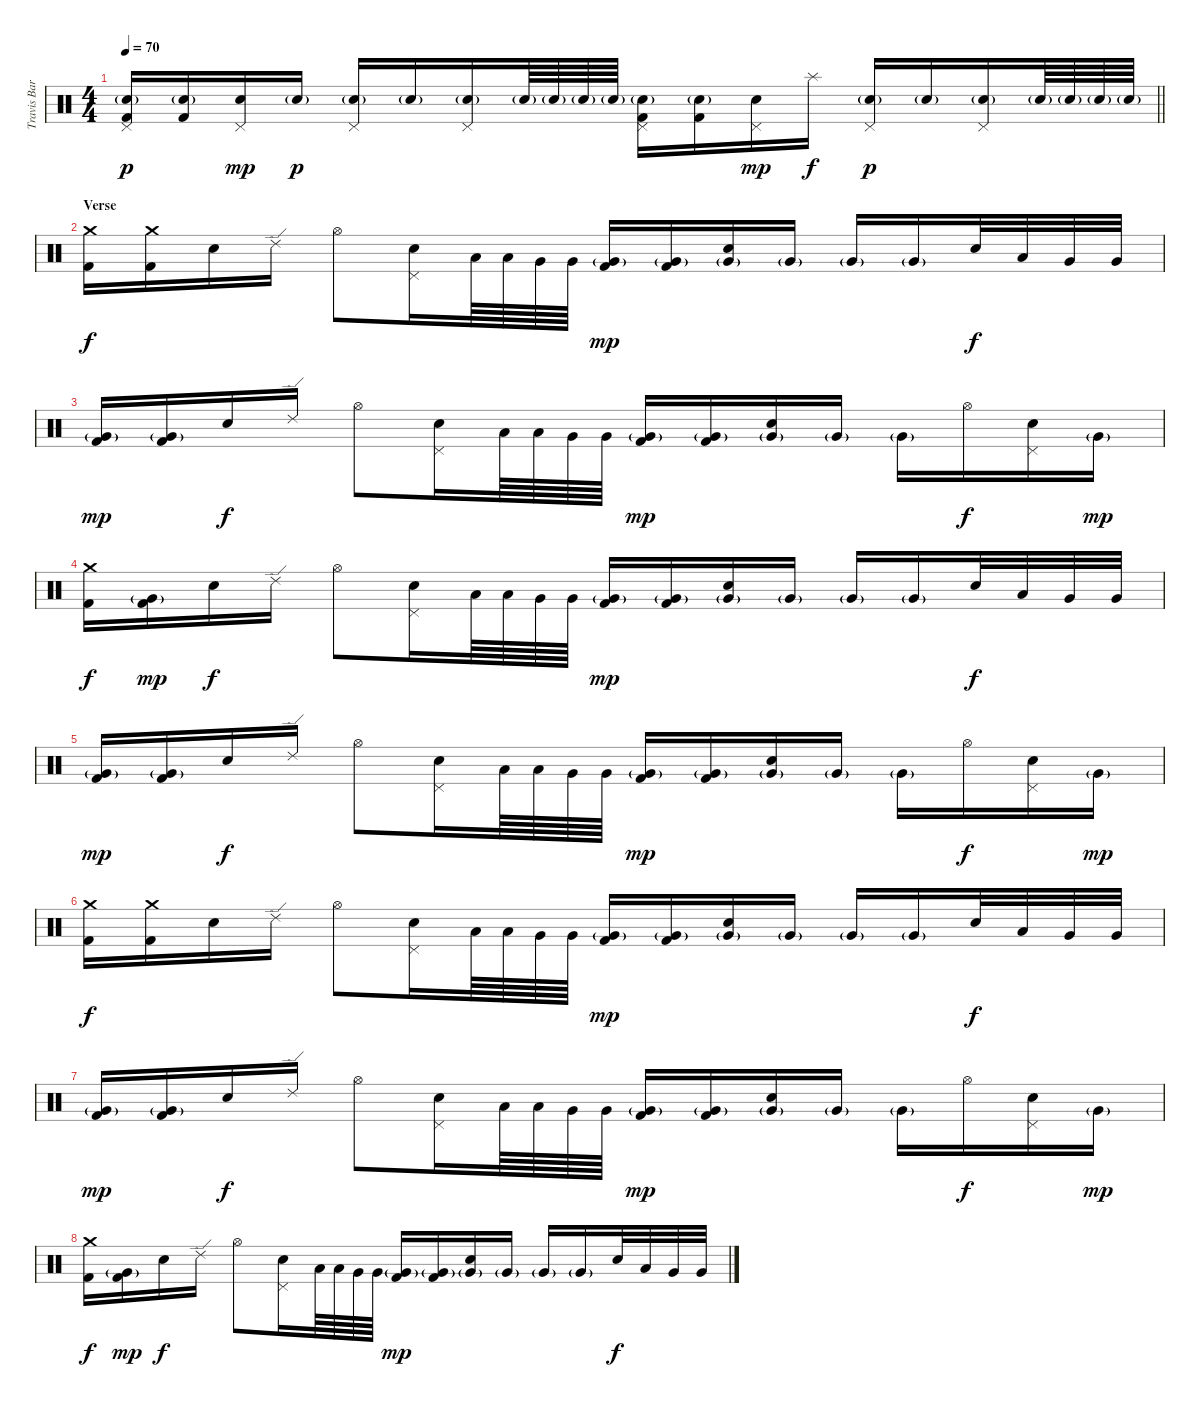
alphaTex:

\track ("Travis Barker" "Travis Bar") {instrument percussion}
\staff {score}
\articulation defaults
\ts (4 4)
\tempo 70
\clef neutral
\barLineRight lightlight
\ks c
("Pedal Hi-Hat (hit)" "Electric Snare (hit)"{g} "Kick (hit) 2").16{dy p} ("Electric Snare (hit)"{g} "Kick (hit) 2").16 ("Pedal Hi-Hat (hit)" "Electric Snare (hit)").16{dy mp} "Electric Snare (hit)"{g}.16{dy p} ("Pedal Hi-Hat (hit)" "Electric Snare (hit)"{g}).16 "Electric Snare (hit)"{g}.16 ("Pedal Hi-Hat (hit)" "Electric Snare (hit)"{g}).16 "Electric Snare (hit)"{g}.64 "Electric Snare (hit)"{g}.64 "Electric Snare (hit)"{g}.64 "Electric Snare (hit)"{g}.64 ("Pedal Hi-Hat (hit)" "Electric Snare (hit)"{g} "Kick (hit) 2").16 ("Electric Snare (hit)"{g} "Kick (hit) 2").16 ("Pedal Hi-Hat (hit)" "Electric Snare (hit)").16{dy mp} "Splash (hit)".16{dy f} ("Pedal Hi-Hat (hit)" "Electric Snare (hit)"{g}).16{dy p} "Electric Snare (hit)"{g}.16 ("Pedal Hi-Hat (hit)" "Electric Snare (hit)"{g}).16 "Electric Snare (hit)"{g}.64 "Electric Snare (hit)"{g}.64 "Electric Snare (hit)"{g}.64 "Electric Snare (hit)"{g}.64 |
\section ("" "Verse")
("Crash medium (hit)" "Kick (hit) 2").16{dy f} ("Crash medium (hit)" "Kick (hit) 2").16 "Electric Snare (hit)".16 "Ride (edge) 2".16 "Hi-Hat (open)".8 ("Pedal Hi-Hat (hit)" "Electric Snare (hit)").16 "Low Tom (hit)".64 "Low Tom (hit)".64 "Very Low Tom (hit)".64 "Very Low Tom (hit)".64 ("Very Low Tom (hit)"{g} "Kick (hit) 2").16{dy mp} ("Very Low Tom (hit)"{g} "Kick (hit) 2").16 ("Electric Snare (hit)" "Very Low Tom (hit)"{g}).16 "Very Low Tom (hit)"{g}.16 "Very Low Tom (hit)"{g}.16 "Very Low Tom (hit)"{g}.16 "Electric Snare (hit)".32{dy f} "Low Tom (hit)".32 "Very Low Tom (hit)".32 "Very Low Tom (hit)".32 |
("Very Low Tom (hit)"{g} "Kick (hit) 2").16{dy mp} ("Very Low Tom (hit)"{g} "Kick (hit) 2").16 "Electric Snare (hit)".16{dy f} "Ride (edge) 2".16 "Hi-Hat (open)".8 ("Pedal Hi-Hat (hit)" "Electric Snare (hit)").16 "Low Tom (hit)".64 "Low Tom (hit)".64 "Very Low Tom (hit)".64 "Very Low Tom (hit)".64 ("Very Low Tom (hit)"{g} "Kick (hit) 2").16{dy mp} ("Very Low Tom (hit)"{g} "Kick (hit) 2").16 ("Electric Snare (hit)" "Very Low Tom (hit)"{g}).16 "Very Low Tom (hit)"{g}.16 "Very Low Tom (hit)"{g}.16 "Hi-Hat (open)".16{dy f} ("Pedal Hi-Hat (hit)" "Electric Snare (hit)").16 "Very Low Tom (hit)"{g}.16{dy mp} |
("Crash medium (hit)" "Kick (hit) 2").16{dy f} ("Very Low Tom (hit)"{g} "Kick (hit) 2").16{dy mp} "Electric Snare (hit)".16{dy f} "Ride (edge) 2".16 "Hi-Hat (open)".8 ("Pedal Hi-Hat (hit)" "Electric Snare (hit)").16 "Low Tom (hit)".64 "Low Tom (hit)".64 "Very Low Tom (hit)".64 "Very Low Tom (hit)".64 ("Very Low Tom (hit)"{g} "Kick (hit) 2").16{dy mp} ("Very Low Tom (hit)"{g} "Kick (hit) 2").16 ("Electric Snare (hit)" "Very Low Tom (hit)"{g}).16 "Very Low Tom (hit)"{g}.16 "Very Low Tom (hit)"{g}.16 "Very Low Tom (hit)"{g}.16 "Electric Snare (hit)".32{dy f} "Low Tom (hit)".32 "Very Low Tom (hit)".32 "Very Low Tom (hit)".32 |
("Very Low Tom (hit)"{g} "Kick (hit) 2").16{dy mp} ("Very Low Tom (hit)"{g} "Kick (hit) 2").16 "Electric Snare (hit)".16{dy f} "Ride (edge) 2".16 "Hi-Hat (open)".8 ("Pedal Hi-Hat (hit)" "Electric Snare (hit)").16 "Low Tom (hit)".64 "Low Tom (hit)".64 "Very Low Tom (hit)".64 "Very Low Tom (hit)".64 ("Very Low Tom (hit)"{g} "Kick (hit) 2").16{dy mp} ("Very Low Tom (hit)"{g} "Kick (hit) 2").16 ("Electric Snare (hit)" "Very Low Tom (hit)"{g}).16 "Very Low Tom (hit)"{g}.16 "Very Low Tom (hit)"{g}.16 "Hi-Hat (open)".16{dy f} ("Pedal Hi-Hat (hit)" "Electric Snare (hit)").16 "Very Low Tom (hit)"{g}.16{dy mp} |
("Crash medium (hit)" "Kick (hit) 2").16{dy f} ("Crash medium (hit)" "Kick (hit) 2").16 "Electric Snare (hit)".16 "Ride (edge) 2".16 "Hi-Hat (open)".8 ("Pedal Hi-Hat (hit)" "Electric Snare (hit)").16 "Low Tom (hit)".64 "Low Tom (hit)".64 "Very Low Tom (hit)".64 "Very Low Tom (hit)".64 ("Very Low Tom (hit)"{g} "Kick (hit) 2").16{dy mp} ("Very Low Tom (hit)"{g} "Kick (hit) 2").16 ("Electric Snare (hit)" "Very Low Tom (hit)"{g}).16 "Very Low Tom (hit)"{g}.16 "Very Low Tom (hit)"{g}.16 "Very Low Tom (hit)"{g}.16 "Electric Snare (hit)".32{dy f} "Low Tom (hit)".32 "Very Low Tom (hit)".32 "Very Low Tom (hit)".32 |
("Very Low Tom (hit)"{g} "Kick (hit) 2").16{dy mp} ("Very Low Tom (hit)"{g} "Kick (hit) 2").16 "Electric Snare (hit)".16{dy f} "Ride (edge) 2".16 "Hi-Hat (open)".8 ("Pedal Hi-Hat (hit)" "Electric Snare (hit)").16 "Low Tom (hit)".64 "Low Tom (hit)".64 "Very Low Tom (hit)".64 "Very Low Tom (hit)".64 ("Very Low Tom (hit)"{g} "Kick (hit) 2").16{dy mp} ("Very Low Tom (hit)"{g} "Kick (hit) 2").16 ("Electric Snare (hit)" "Very Low Tom (hit)"{g}).16 "Very Low Tom (hit)"{g}.16 "Very Low Tom (hit)"{g}.16 "Hi-Hat (open)".16{dy f} ("Pedal Hi-Hat (hit)" "Electric Snare (hit)").16 "Very Low Tom (hit)"{g}.16{dy mp} |
("Crash medium (hit)" "Kick (hit) 2").16{dy f} ("Very Low Tom (hit)"{g} "Kick (hit) 2").16{dy mp} "Electric Snare (hit)".16{dy f} "Ride (edge) 2".16 "Hi-Hat (open)".8 ("Pedal Hi-Hat (hit)" "Electric Snare (hit)").16 "Low Tom (hit)".64 "Low Tom (hit)".64 "Very Low Tom (hit)".64 "Very Low Tom (hit)".64 ("Very Low Tom (hit)"{g} "Kick (hit) 2").16{dy mp} ("Very Low Tom (hit)"{g} "Kick (hit) 2").16 ("Electric Snare (hit)" "Very Low Tom (hit)"{g}).16 "Very Low Tom (hit)"{g}.16 "Very Low Tom (hit)"{g}.16 "Very Low Tom (hit)"{g}.16 "Electric Snare (hit)".32{dy f} "Low Tom (hit)".32 "Very Low Tom (hit)".32 "Very Low Tom (hit)".32
